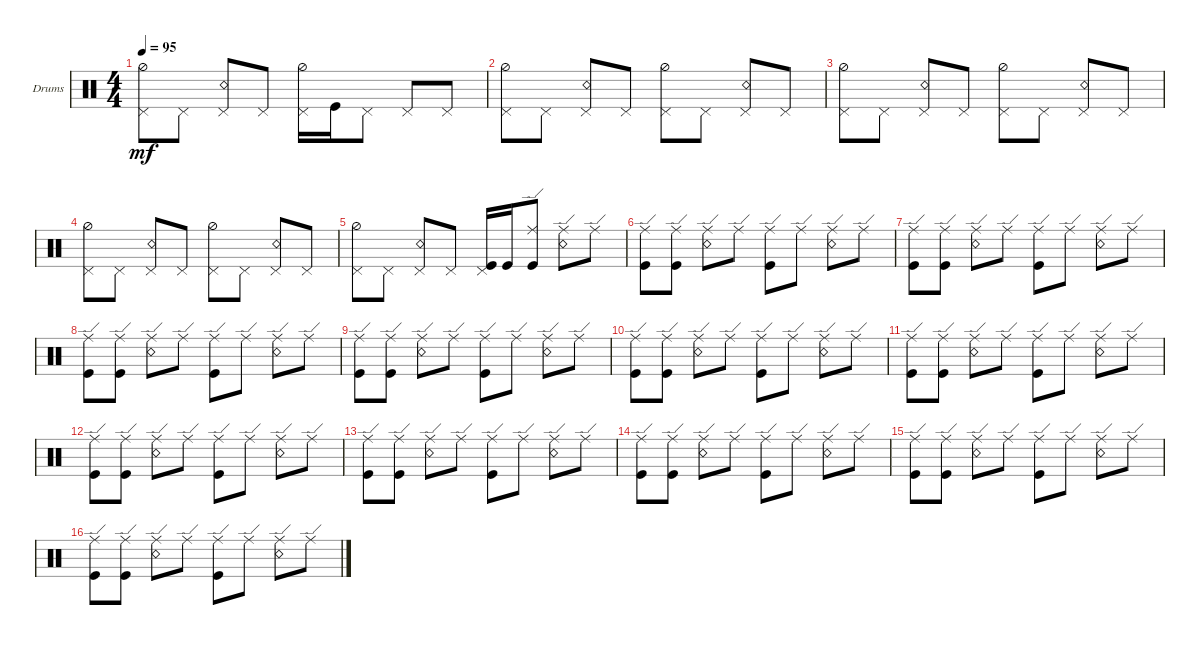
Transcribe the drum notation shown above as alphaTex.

\bracketExtendMode groupsimilarinstruments
\firstSystemTrackNameOrientation horizontal
\otherSystemsTrackNameOrientation horizontal
\track ("Drumkit" "Drums") {instrument percussion}
\staff {score}
\articulation defaults
\ts (4 4)
\tempo 95
\clef neutral
\ks c
("Pedal Hi-Hat (hit)" "Hi-Hat (half)").8{dy mf} "Pedal Hi-Hat (hit)".8 ("Pedal Hi-Hat (hit)" "Snare (rim shot)").8 "Pedal Hi-Hat (hit)".8 ("Pedal Hi-Hat (hit)" "Hi-Hat (half)").16 "Kick (hit)".16 "Pedal Hi-Hat (hit)".8 "Pedal Hi-Hat (hit)".8 "Pedal Hi-Hat (hit)".8 |
("Pedal Hi-Hat (hit)" "Hi-Hat (half)").8 "Pedal Hi-Hat (hit)".8 ("Pedal Hi-Hat (hit)" "Snare (rim shot)").8 "Pedal Hi-Hat (hit)".8 ("Pedal Hi-Hat (hit)" "Hi-Hat (half)").8 "Pedal Hi-Hat (hit)".8 ("Pedal Hi-Hat (hit)" "Snare (rim shot)").8 "Pedal Hi-Hat (hit)".8 |
("Pedal Hi-Hat (hit)" "Hi-Hat (half)").8 "Pedal Hi-Hat (hit)".8 ("Pedal Hi-Hat (hit)" "Snare (rim shot)").8 "Pedal Hi-Hat (hit)".8 ("Pedal Hi-Hat (hit)" "Hi-Hat (half)").8 "Pedal Hi-Hat (hit)".8 ("Pedal Hi-Hat (hit)" "Snare (rim shot)").8 "Pedal Hi-Hat (hit)".8 |
("Pedal Hi-Hat (hit)" "Hi-Hat (half)").8 "Pedal Hi-Hat (hit)".8 ("Pedal Hi-Hat (hit)" "Snare (rim shot)").8 "Pedal Hi-Hat (hit)".8 ("Pedal Hi-Hat (hit)" "Hi-Hat (half)").8 "Pedal Hi-Hat (hit)".8 ("Pedal Hi-Hat (hit)" "Snare (rim shot)").8 "Pedal Hi-Hat (hit)".8 |
("Pedal Hi-Hat (hit)" "Hi-Hat (half)").8 "Pedal Hi-Hat (hit)".8 ("Pedal Hi-Hat (hit)" "Snare (rim shot)").8 "Pedal Hi-Hat (hit)".8 ("Pedal Hi-Hat (hit)" "Kick (hit)").16 "Kick (hit)".16 ("Kick (hit)" "Ride (edge)").8 ("Snare (rim shot)" "Ride (edge)").8 "Ride (edge)".8 |
("Kick (hit)" "Ride (edge)").8 ("Kick (hit)" "Ride (edge)").8 ("Snare (rim shot)" "Ride (edge)").8 "Ride (edge)".8 ("Kick (hit)" "Ride (edge)").8 "Ride (edge)".8 ("Snare (rim shot)" "Ride (edge)").8 "Ride (edge)".8 |
("Kick (hit)" "Ride (edge)").8 ("Kick (hit)" "Ride (edge)").8 ("Snare (rim shot)" "Ride (edge)").8 "Ride (edge)".8 ("Kick (hit)" "Ride (edge)").8 "Ride (edge)".8 ("Snare (rim shot)" "Ride (edge)").8 "Ride (edge)".8 |
("Kick (hit)" "Ride (edge)").8 ("Kick (hit)" "Ride (edge)").8 ("Snare (rim shot)" "Ride (edge)").8 "Ride (edge)".8 ("Kick (hit)" "Ride (edge)").8 "Ride (edge)".8 ("Snare (rim shot)" "Ride (edge)").8 "Ride (edge)".8 |
("Kick (hit)" "Ride (edge)").8 ("Kick (hit)" "Ride (edge)").8 ("Snare (rim shot)" "Ride (edge)").8 "Ride (edge)".8 ("Kick (hit)" "Ride (edge)").8 "Ride (edge)".8 ("Snare (rim shot)" "Ride (edge)").8 "Ride (edge)".8 |
("Kick (hit)" "Ride (edge)").8 ("Kick (hit)" "Ride (edge)").8 ("Snare (rim shot)" "Ride (edge)").8 "Ride (edge)".8 ("Kick (hit)" "Ride (edge)").8 "Ride (edge)".8 ("Snare (rim shot)" "Ride (edge)").8 "Ride (edge)".8 |
("Kick (hit)" "Ride (edge)").8 ("Kick (hit)" "Ride (edge)").8 ("Snare (rim shot)" "Ride (edge)").8 "Ride (edge)".8 ("Kick (hit)" "Ride (edge)").8 "Ride (edge)".8 ("Snare (rim shot)" "Ride (edge)").8 "Ride (edge)".8 |
("Kick (hit)" "Ride (edge)").8 ("Kick (hit)" "Ride (edge)").8 ("Snare (rim shot)" "Ride (edge)").8 "Ride (edge)".8 ("Kick (hit)" "Ride (edge)").8 "Ride (edge)".8 ("Snare (rim shot)" "Ride (edge)").8 "Ride (edge)".8 |
("Kick (hit)" "Ride (edge)").8 ("Kick (hit)" "Ride (edge)").8 ("Snare (rim shot)" "Ride (edge)").8 "Ride (edge)".8 ("Kick (hit)" "Ride (edge)").8 "Ride (edge)".8 ("Snare (rim shot)" "Ride (edge)").8 "Ride (edge)".8 |
("Kick (hit)" "Ride (edge)").8 ("Kick (hit)" "Ride (edge)").8 ("Snare (rim shot)" "Ride (edge)").8 "Ride (edge)".8 ("Kick (hit)" "Ride (edge)").8 "Ride (edge)".8 ("Snare (rim shot)" "Ride (edge)").8 "Ride (edge)".8 |
("Kick (hit)" "Ride (edge)").8 ("Kick (hit)" "Ride (edge)").8 ("Snare (rim shot)" "Ride (edge)").8 "Ride (edge)".8 ("Kick (hit)" "Ride (edge)").8 "Ride (edge)".8 ("Snare (rim shot)" "Ride (edge)").8 "Ride (edge)".8 |
("Kick (hit)" "Ride (edge)").8 ("Kick (hit)" "Ride (edge)").8 ("Snare (rim shot)" "Ride (edge)").8 "Ride (edge)".8 ("Kick (hit)" "Ride (edge)").8 "Ride (edge)".8 ("Snare (rim shot)" "Ride (edge)").8 "Ride (edge)".8
